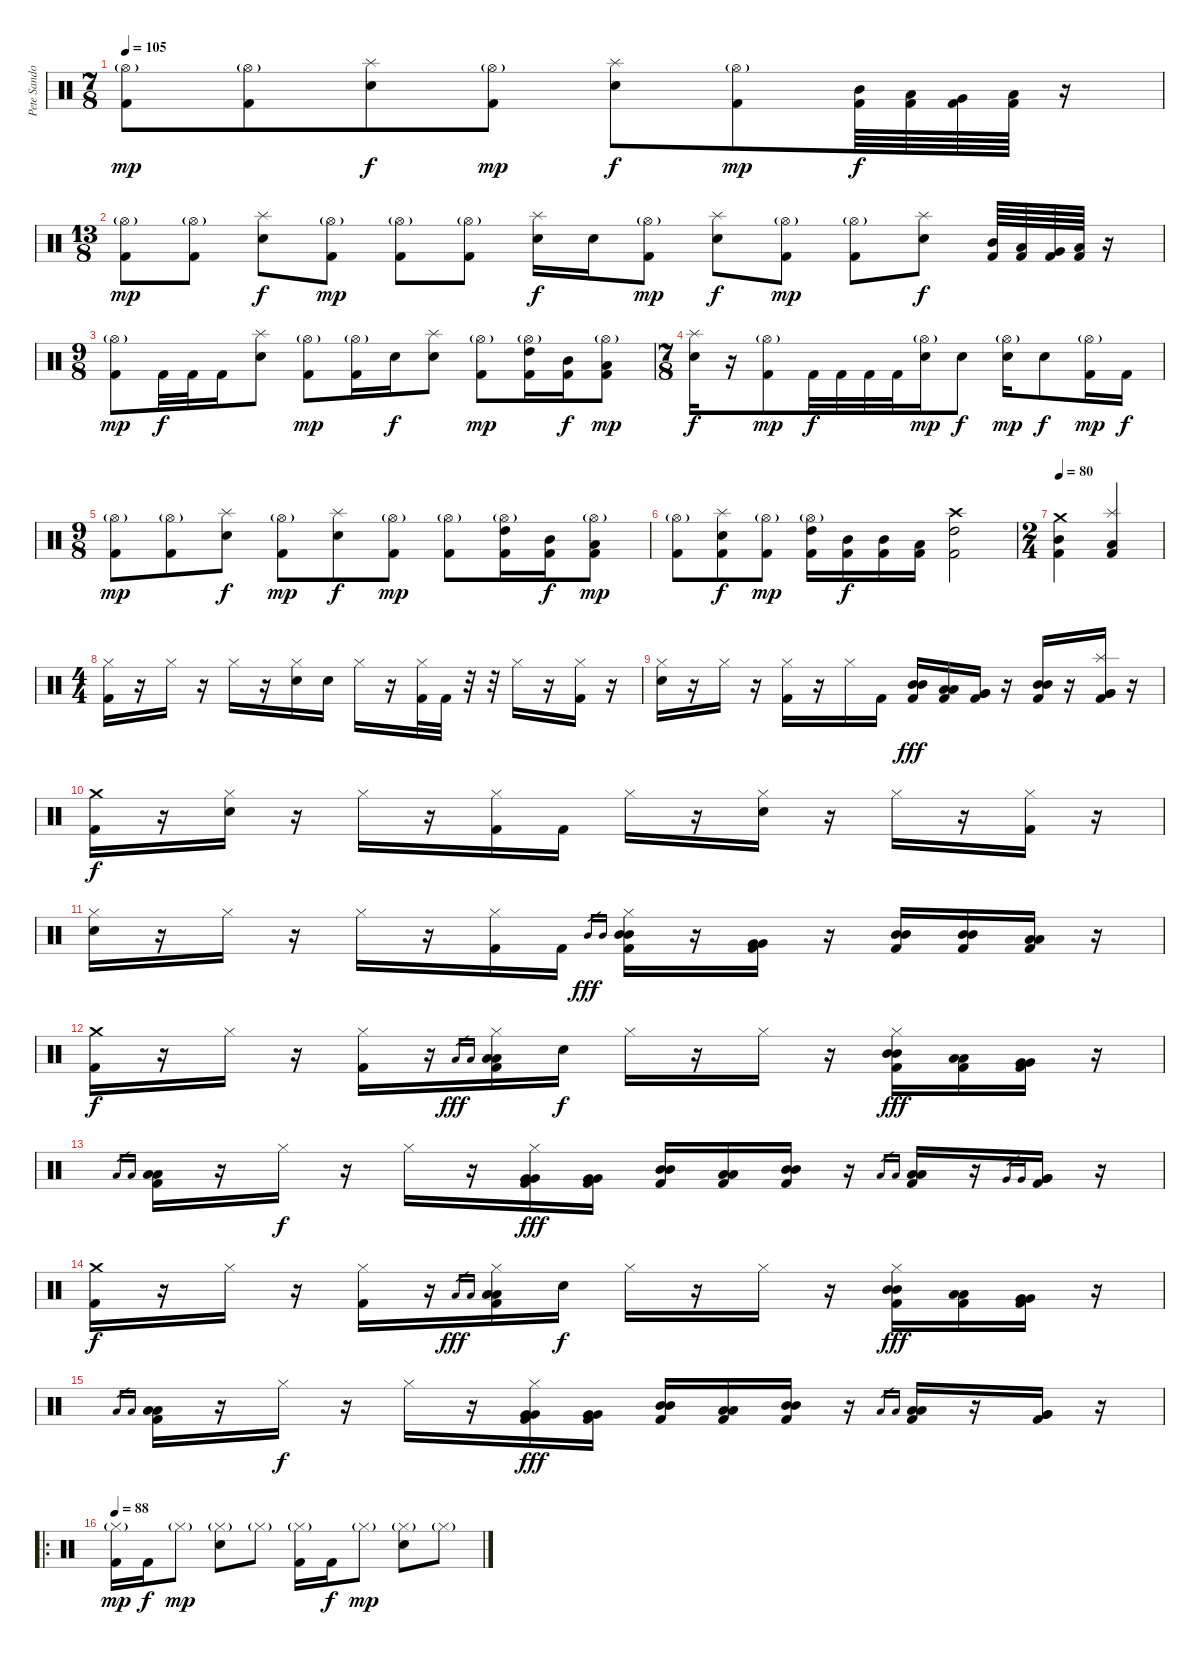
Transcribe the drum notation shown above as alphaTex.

\track ("Pete Sandoval" "Pete Sando") {instrument percussion}
\staff {score}
\articulation defaults
\ts (7 8)
\tempo 105
\clef neutral
\ks c
("Hi-Hat (open)"{g} "Kick (hit) 2").8{dy mp} ("Hi-Hat (open)"{g} "Kick (hit) 2").8 ("Splash (hit)" "Snare (hit) 2").8{dy f} ("Hi-Hat (open)"{g} "Kick (hit) 2").8{dy mp} ("Splash (hit)" "Snare (hit) 2").8{dy f} ("Hi-Hat (open)"{g} "Kick (hit) 2").8{dy mp} ("Mid Tom (hit)" "Kick (hit) 2").64{dy f} ("Low Tom (hit)" "Kick (hit) 2").64 ("Very Low Tom (hit)" "Kick (hit) 2").64 ("Low Floor Tom (hit)" "Kick (hit) 2").64 r.16 |
\ts (13 8)
("Hi-Hat (open)"{g} "Kick (hit) 2").8{dy mp} ("Hi-Hat (open)"{g} "Kick (hit) 2").8 ("Splash (hit)" "Snare (hit) 2").8{dy f} ("Hi-Hat (open)"{g} "Kick (hit) 2").8{dy mp} ("Hi-Hat (open)"{g} "Kick (hit) 2").8 ("Hi-Hat (open)"{g} "Kick (hit) 2").8 ("Splash (hit)" "Snare (hit) 2").16{dy f} "Snare (hit) 2".16 ("Hi-Hat (open)"{g} "Kick (hit) 2").8{dy mp} ("Splash (hit)" "Snare (hit) 2").8{dy f} ("Hi-Hat (open)"{g} "Kick (hit) 2").8{dy mp} ("Hi-Hat (open)"{g} "Kick (hit) 2").8 ("Splash (hit)" "Snare (hit) 2").8{dy f} ("Mid Tom (hit)" "Kick (hit) 2").64 ("Low Tom (hit)" "Kick (hit) 2").64 ("Very Low Tom (hit)" "Kick (hit) 2").64 ("Low Floor Tom (hit)" "Kick (hit) 2").64 r.16 |
\ts (9 8)
("Hi-Hat (open)"{g} "Kick (hit) 2").8{dy mp} "Kick (hit) 2".32{dy f} "Kick (hit) 2".32 "Kick (hit) 2".16 ("Splash (hit)" "Snare (hit) 2").8 ("Hi-Hat (open)"{g} "Kick (hit) 2").8{dy mp} ("Hi-Hat (open)"{g} "Kick (hit) 2").16 "Snare (hit) 2".16{dy f} ("Splash (hit)" "Snare (hit) 2").8 ("Hi-Hat (open)"{g} "Kick (hit) 2").8{dy mp} ("Hi-Hat (open)"{g} "High Tom (hit)" "Kick (hit) 2").16 ("Mid Tom (hit)" "Kick (hit) 2").16{dy f} ("Hi-Hat (open)"{g} "Low Tom (hit)" "Kick (hit) 2").8{dy mp} |
\ts (7 8)
("Splash (hit)" "Snare (hit) 2").16{dy f} r.16 ("Hi-Hat (open)"{g} "Kick (hit) 2").8{dy mp} "Kick (hit) 2".32{dy f} "Kick (hit) 2".32 "Kick (hit) 2".32 "Kick (hit) 2".32 ("Hi-Hat (open)"{g} "Snare (hit) 2").16{dy mp} "Snare (hit) 2".8{dy f} ("Hi-Hat (open)"{g} "Snare (hit) 2").16{dy mp} "Snare (hit) 2".8{dy f} ("Hi-Hat (open)"{g} "Kick (hit) 2").16{dy mp} "Kick (hit) 2".16{dy f} |
\ts (9 8)
("Hi-Hat (open)"{g} "Kick (hit) 2").8{dy mp} ("Hi-Hat (open)"{g} "Kick (hit) 2").8 ("Splash (hit)" "Snare (hit) 2").8{dy f} ("Hi-Hat (open)"{g} "Kick (hit) 2").8{dy mp} ("Splash (hit)" "Snare (hit) 2").8{dy f} ("Hi-Hat (open)"{g} "Kick (hit) 2").8{dy mp} ("Hi-Hat (open)"{g} "Kick (hit) 2").8 ("Hi-Hat (open)"{g} "High Tom (hit)" "Kick (hit) 2").16 ("Mid Tom (hit)" "Kick (hit) 2").16{dy f} ("Hi-Hat (open)"{g} "Low Tom (hit)" "Kick (hit) 2").8{dy mp} |
("Hi-Hat (open)"{g} "Kick (hit) 2").8 ("Splash (hit)" "Snare (hit) 2" "Kick (hit) 2").8{dy f} ("Hi-Hat (open)"{g} "Kick (hit) 2").8{dy mp} ("Hi-Hat (open)"{g} "High Tom (hit)" "Kick (hit) 2").16 ("Mid Tom (hit)" "Kick (hit) 2").16{dy f} ("Mid Tom (hit)" "Kick (hit) 2").16 ("Low Tom (hit)" "Kick (hit) 2").16 ("Crash high (hit)" "High Tom (hit)" "Kick (hit) 2").2 |
\ts (2 4)
\tempo 80
("Crash medium (hit)" "Mid Tom (hit)" "Kick (hit) 2").4 ("Splash (hit)" "Low Tom (hit)" "Kick (hit) 2").4 |
\ts (4 4)
("Hi-Hat (closed)" "Kick (hit) 2").16 r.16 "Hi-Hat (closed)".16 r.16 "Hi-Hat (closed)".16 r.16 ("Hi-Hat (closed)" "Snare (hit) 2").16 "Snare (hit) 2".16 "Hi-Hat (closed)".16 r.16 ("Hi-Hat (closed)" "Kick (hit) 2").32 "Kick (hit) 2".32 r.32 r.32 "Hi-Hat (closed)".16 r.16 ("Hi-Hat (closed)" "Kick (hit) 2").16 r.16 |
("Hi-Hat (closed)" "Snare (hit) 2").16 r.16 "Hi-Hat (closed)".16 r.16 ("Hi-Hat (closed)" "Kick (hit) 2").16 r.16 "Hi-Hat (closed)".16 "Kick (hit) 2".16 ("Mid Tom (hit)" "Mid Tom (hit)" "Kick (hit) 2").16{dy fff} ("Low Tom (hit)" "Low Tom (hit)" "Kick (hit) 2").16 ("Very Low Tom (hit)" "Very Low Tom (hit)" "Kick (hit) 2").16 r.16 ("Mid Tom (hit)" "Mid Tom (hit)" "Kick (hit) 2").16 r.16 ("Splash (hit)" "Very Low Tom (hit)" "Very Low Tom (hit)" "Kick (hit) 2").16 r.16 |
("Crash medium (hit)" "Kick (hit) 2").16{dy f} r.16 ("Hi-Hat (closed)" "Snare (hit) 2").16 r.16 "Hi-Hat (closed)".16 r.16 ("Hi-Hat (closed)" "Kick (hit) 2").16 "Kick (hit) 2".16 "Hi-Hat (closed)".16 r.16 ("Hi-Hat (closed)" "Snare (hit) 2").16 r.16 "Hi-Hat (closed)".16 r.16 ("Hi-Hat (closed)" "Kick (hit) 2").16 r.16 |
("Hi-Hat (closed)" "Snare (hit) 2").16 r.16 "Hi-Hat (closed)".16 r.16 "Hi-Hat (closed)".16 r.16 ("Hi-Hat (closed)" "Kick (hit) 2").16 "Kick (hit) 2".16 "Mid Tom (hit)".16{gr dy fff} "Mid Tom (hit)".16{gr} ("Hi-Hat (closed)" "Mid Tom (hit)" "Mid Tom (hit)" "Kick (hit) 2").16 r.16 ("Very Low Tom (hit)" "Very Low Tom (hit)" "Kick (hit) 2").16 r.16 ("Mid Tom (hit)" "Mid Tom (hit)" "Kick (hit) 2").16 ("Mid Tom (hit)" "Mid Tom (hit)" "Kick (hit) 2").16 ("Low Tom (hit)" "Low Tom (hit)" "Kick (hit) 2").16 r.16 |
("Crash medium (hit)" "Kick (hit) 2").16{dy f} r.16 "Hi-Hat (closed)".16 r.16 ("Hi-Hat (closed)" "Kick (hit) 2").16 r.16 "Low Tom (hit)".16{gr dy fff} "Low Tom (hit)".16{gr} ("Hi-Hat (closed)" "Low Tom (hit)" "Low Tom (hit)" "Kick (hit) 2").16 "Snare (hit) 2".16{dy f} "Hi-Hat (closed)".16 r.16 "Hi-Hat (closed)".16 r.16 ("Hi-Hat (closed)" "Mid Tom (hit)" "Mid Tom (hit)" "Kick (hit) 2").16{dy fff} ("Low Tom (hit)" "Low Tom (hit)" "Kick (hit) 2").16 ("Very Low Tom (hit)" "Very Low Tom (hit)" "Kick (hit) 2").16 r.16 |
"Low Floor Tom (hit)".16{gr} "Low Floor Tom (hit)".16{gr} ("Low Floor Tom (hit)" "Low Floor Tom (hit)" "Kick (hit) 2").16 r.16 "Hi-Hat (closed)".16{dy f} r.16 "Hi-Hat (closed)".16 r.16 ("Hi-Hat (closed)" "Very Low Tom (hit)" "Very Low Tom (hit)" "Kick (hit) 2").16{dy fff} ("Very Low Tom (hit)" "Very Low Tom (hit)" "Kick (hit) 2").16 ("Mid Tom (hit)" "Mid Tom (hit)" "Kick (hit) 2").16 ("Low Tom (hit)" "Low Tom (hit)" "Kick (hit) 2").16 ("Mid Tom (hit)" "Mid Tom (hit)" "Kick (hit) 2").16 r.16 "Low Tom (hit)".16{gr} "Low Tom (hit)".16{gr} ("Low Tom (hit)" "Low Tom (hit)" "Kick (hit) 2").16 r.16 "Very Low Tom (hit)".16{gr} "Very Low Tom (hit)".16{gr} ("Very Low Tom (hit)" "Very Low Tom (hit)" "Kick (hit) 2").16 r.16 |
("Crash medium (hit)" "Kick (hit) 2").16{dy f} r.16 "Hi-Hat (closed)".16 r.16 ("Hi-Hat (closed)" "Kick (hit) 2").16 r.16 "Low Tom (hit)".16{gr dy fff} "Low Tom (hit)".16{gr} ("Hi-Hat (closed)" "Low Tom (hit)" "Low Tom (hit)" "Kick (hit) 2").16 "Snare (hit) 2".16{dy f} "Hi-Hat (closed)".16 r.16 "Hi-Hat (closed)".16 r.16 ("Hi-Hat (closed)" "Mid Tom (hit)" "Mid Tom (hit)" "Kick (hit) 2").16{dy fff} ("Low Tom (hit)" "Low Tom (hit)" "Kick (hit) 2").16 ("Very Low Tom (hit)" "Very Low Tom (hit)" "Kick (hit) 2").16 r.16 |
"Low Floor Tom (hit)".16{gr} "Low Floor Tom (hit)".16{gr} ("Low Floor Tom (hit)" "Low Floor Tom (hit)" "Kick (hit) 2").16 r.16 "Hi-Hat (closed)".16{dy f} r.16 "Hi-Hat (closed)".16 r.16 ("Hi-Hat (closed)" "Very Low Tom (hit)" "Very Low Tom (hit)" "Kick (hit) 2").16{dy fff} ("Very Low Tom (hit)" "Very Low Tom (hit)" "Kick (hit) 2").16 ("Mid Tom (hit)" "Mid Tom (hit)" "Kick (hit) 2").16 ("Low Tom (hit)" "Low Tom (hit)" "Kick (hit) 2").16 ("Mid Tom (hit)" "Mid Tom (hit)" "Kick (hit) 2").16 r.16 "Low Tom (hit)".16{gr} "Low Tom (hit)".16{gr} ("Low Tom (hit)" "Low Tom (hit)" "Kick (hit) 2").16 r.16 ("Very Low Tom (hit)" "Very Low Tom (hit)" "Kick (hit) 2").16 r.16 |
\ro
\tempo 88
("Hi-Hat (closed)"{g} "Kick (hit) 2").16{dy mp} "Kick (hit) 2".16{dy f} "Hi-Hat (closed)"{g}.8{dy mp} ("Hi-Hat (closed)"{g} "Snare (hit) 2").8 "Hi-Hat (closed)"{g}.8 ("Hi-Hat (closed)"{g} "Kick (hit) 2").16 "Kick (hit) 2".16{dy f} "Hi-Hat (closed)"{g}.8{dy mp} ("Hi-Hat (closed)"{g} "Snare (hit) 2").8 "Hi-Hat (closed)"{g}.8
